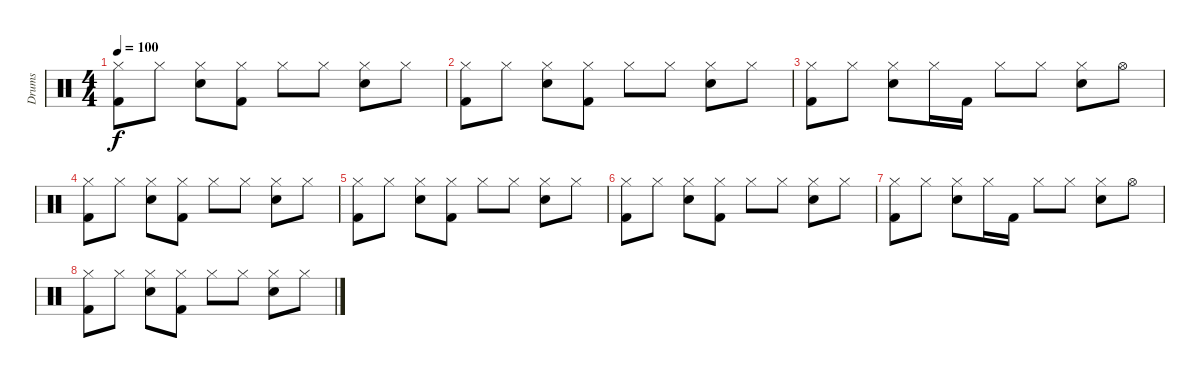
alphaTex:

\track ("Drums" "Drums") {instrument percussion}
\staff {score}
\articulation defaults
\ts (4 4)
\tempo 100
\clef neutral
\ks c
("Kick (hit) 2" "Hi-Hat (closed)").8{dy f} "Hi-Hat (closed)".8 ("Electric Snare (hit)" "Hi-Hat (closed)").8 ("Kick (hit) 2" "Hi-Hat (closed)").8 "Hi-Hat (closed)".8 "Hi-Hat (closed)".8 ("Electric Snare (hit)" "Hi-Hat (closed)").8 "Hi-Hat (closed)".8 |
("Kick (hit) 2" "Hi-Hat (closed)").8 "Hi-Hat (closed)".8 ("Electric Snare (hit)" "Hi-Hat (closed)").8 ("Kick (hit) 2" "Hi-Hat (closed)").8 "Hi-Hat (closed)".8 "Hi-Hat (closed)".8 ("Electric Snare (hit)" "Hi-Hat (closed)").8 "Hi-Hat (closed)".8 |
("Kick (hit) 2" "Hi-Hat (closed)").8 "Hi-Hat (closed)".8 ("Electric Snare (hit)" "Hi-Hat (closed)").8 "Hi-Hat (closed)".16 "Kick (hit) 2".16 "Hi-Hat (closed)".8 "Hi-Hat (closed)".8 ("Electric Snare (hit)" "Hi-Hat (closed)").8 "Hi-Hat (open)".8 |
("Kick (hit) 2" "Hi-Hat (closed)").8 "Hi-Hat (closed)".8 ("Electric Snare (hit)" "Hi-Hat (closed)").8 ("Kick (hit) 2" "Hi-Hat (closed)").8 "Hi-Hat (closed)".8 "Hi-Hat (closed)".8 ("Electric Snare (hit)" "Hi-Hat (closed)").8 "Hi-Hat (closed)".8 |
("Kick (hit) 2" "Hi-Hat (closed)").8 "Hi-Hat (closed)".8 ("Electric Snare (hit)" "Hi-Hat (closed)").8 ("Kick (hit) 2" "Hi-Hat (closed)").8 "Hi-Hat (closed)".8 "Hi-Hat (closed)".8 ("Electric Snare (hit)" "Hi-Hat (closed)").8 "Hi-Hat (closed)".8 |
("Kick (hit) 2" "Hi-Hat (closed)").8 "Hi-Hat (closed)".8 ("Electric Snare (hit)" "Hi-Hat (closed)").8 ("Kick (hit) 2" "Hi-Hat (closed)").8 "Hi-Hat (closed)".8 "Hi-Hat (closed)".8 ("Electric Snare (hit)" "Hi-Hat (closed)").8 "Hi-Hat (closed)".8 |
("Kick (hit) 2" "Hi-Hat (closed)").8 "Hi-Hat (closed)".8 ("Electric Snare (hit)" "Hi-Hat (closed)").8 "Hi-Hat (closed)".16 "Kick (hit) 2".16 "Hi-Hat (closed)".8 "Hi-Hat (closed)".8 ("Electric Snare (hit)" "Hi-Hat (closed)").8 "Hi-Hat (open)".8 |
("Kick (hit) 2" "Hi-Hat (closed)").8 "Hi-Hat (closed)".8 ("Electric Snare (hit)" "Hi-Hat (closed)").8 ("Kick (hit) 2" "Hi-Hat (closed)").8 "Hi-Hat (closed)".8 "Hi-Hat (closed)".8 ("Electric Snare (hit)" "Hi-Hat (closed)").8 "Hi-Hat (closed)".8
